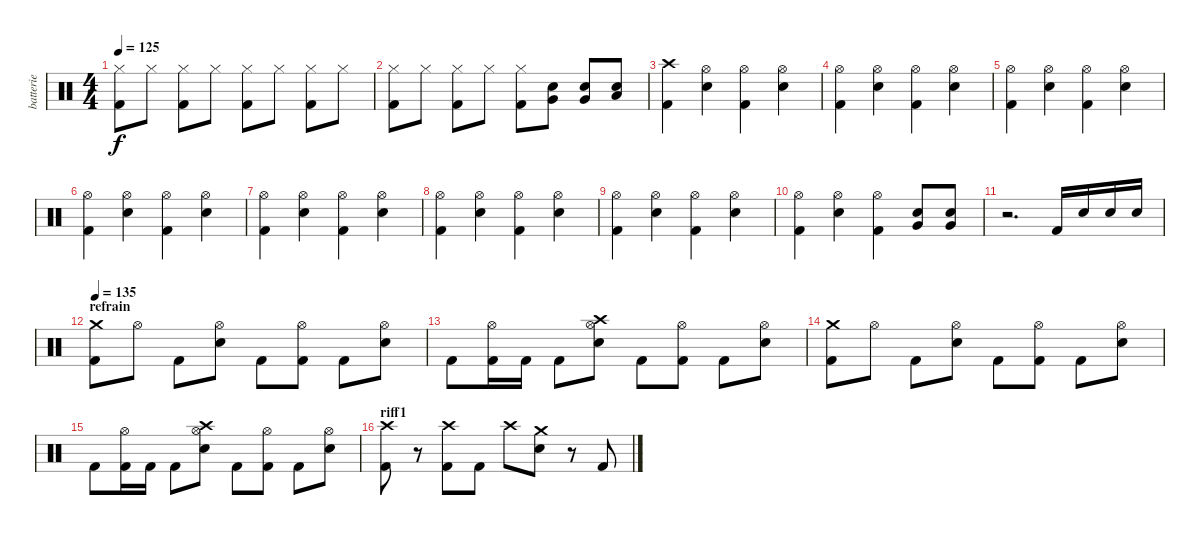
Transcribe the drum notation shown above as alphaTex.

\track ("batterie" "batterie") {instrument percussion}
\staff {score}
\articulation defaults
\ts (4 4)
\tempo 125
\clef neutral
\ks c
("Kick (hit) 2" "Hi-Hat (closed)").8{dy f} "Hi-Hat (closed)".8 ("Kick (hit) 2" "Hi-Hat (closed)").8 "Hi-Hat (closed)".8 ("Kick (hit) 2" "Hi-Hat (closed)").8 "Hi-Hat (closed)".8 ("Kick (hit) 2" "Hi-Hat (closed)").8 "Hi-Hat (closed)".8 |
("Kick (hit) 2" "Hi-Hat (closed)").8 "Hi-Hat (closed)".8 ("Kick (hit) 2" "Hi-Hat (closed)").8 "Hi-Hat (closed)".8 ("Kick (hit) 2" "Hi-Hat (closed)").8 ("Very Low Tom (hit)" "Electric Snare (hit)").8 ("Very Low Tom (hit)" "Electric Snare (hit)").8 ("Low Tom (hit)" "Electric Snare (hit)").8 |
("Crash high (hit)" "Kick (hit) 2").4 ("Electric Snare (hit)" "Hi-Hat (open)").4 ("Kick (hit) 2" "Hi-Hat (open)").4 ("Electric Snare (hit)" "Hi-Hat (open)").4 |
("Kick (hit) 2" "Hi-Hat (open)").4 ("Electric Snare (hit)" "Hi-Hat (open)").4 ("Kick (hit) 2" "Hi-Hat (open)").4 ("Electric Snare (hit)" "Hi-Hat (open)").4 |
("Kick (hit) 2" "Hi-Hat (open)").4 ("Electric Snare (hit)" "Hi-Hat (open)").4 ("Kick (hit) 2" "Hi-Hat (open)").4 ("Electric Snare (hit)" "Hi-Hat (open)").4 |
("Kick (hit) 2" "Hi-Hat (open)").4 ("Electric Snare (hit)" "Hi-Hat (open)").4 ("Kick (hit) 2" "Hi-Hat (open)").4 ("Electric Snare (hit)" "Hi-Hat (open)").4 |
("Kick (hit) 2" "Hi-Hat (open)").4 ("Electric Snare (hit)" "Hi-Hat (open)").4 ("Kick (hit) 2" "Hi-Hat (open)").4 ("Electric Snare (hit)" "Hi-Hat (open)").4 |
("Kick (hit) 2" "Hi-Hat (open)").4 ("Electric Snare (hit)" "Hi-Hat (open)").4 ("Kick (hit) 2" "Hi-Hat (open)").4 ("Electric Snare (hit)" "Hi-Hat (open)").4 |
("Kick (hit) 2" "Hi-Hat (open)").4 ("Electric Snare (hit)" "Hi-Hat (open)").4 ("Kick (hit) 2" "Hi-Hat (open)").4 ("Electric Snare (hit)" "Hi-Hat (open)").4 |
("Kick (hit) 2" "Hi-Hat (open)").4 ("Electric Snare (hit)" "Hi-Hat (open)").4 ("Kick (hit) 2" "Hi-Hat (open)").4 ("Very Low Tom (hit)" "Electric Snare (hit)").8 ("Very Low Tom (hit)" "Electric Snare (hit)").8 |
r.2{d} "Kick (hit) 2".16 "Snare (hit) 2".16 "Snare (hit) 2".16 "Snare (hit) 2".16 |
\section ("" "refrain")
\tempo 135
("Crash medium (hit)" "Kick (hit) 2").8 "Hi-Hat (open)".8 "Kick (hit) 2".8 ("Snare (hit) 2" "Hi-Hat (open)").8 "Kick (hit) 2".8 ("Kick (hit) 2" "Hi-Hat (open)").8 "Kick (hit) 2".8 ("Snare (hit) 2" "Hi-Hat (open)").8 |
"Kick (hit) 2".8 ("Kick (hit) 2" "Hi-Hat (open)").16 "Kick (hit) 2".16 "Kick (hit) 2".8 ("Crash high (hit)" "Snare (hit) 2" "Hi-Hat (open)").8 "Kick (hit) 2".8 ("Kick (hit) 2" "Hi-Hat (open)").8 "Kick (hit) 2".8 ("Snare (hit) 2" "Hi-Hat (open)").8 |
("Crash medium (hit)" "Kick (hit) 2").8 "Hi-Hat (open)".8 "Kick (hit) 2".8 ("Snare (hit) 2" "Hi-Hat (open)").8 "Kick (hit) 2".8 ("Kick (hit) 2" "Hi-Hat (open)").8 "Kick (hit) 2".8 ("Snare (hit) 2" "Hi-Hat (open)").8 |
"Kick (hit) 2".8 ("Kick (hit) 2" "Hi-Hat (open)").16 "Kick (hit) 2".16 "Kick (hit) 2".8 ("Crash high (hit)" "Snare (hit) 2" "Hi-Hat (open)").8 "Kick (hit) 2".8 ("Kick (hit) 2" "Hi-Hat (open)").8 "Kick (hit) 2".8 ("Snare (hit) 2" "Hi-Hat (open)").8 |
\section ("" "riff1")
("Crash high (hit)" "Kick (hit) 2").8 r.8 ("Crash high (hit)" "Kick (hit) 2").8 "Kick (hit) 2".8 "Crash high (hit)".8 ("Crash medium (hit)" "Snare (hit) 2").8 r.8 "Kick (hit) 2".8
